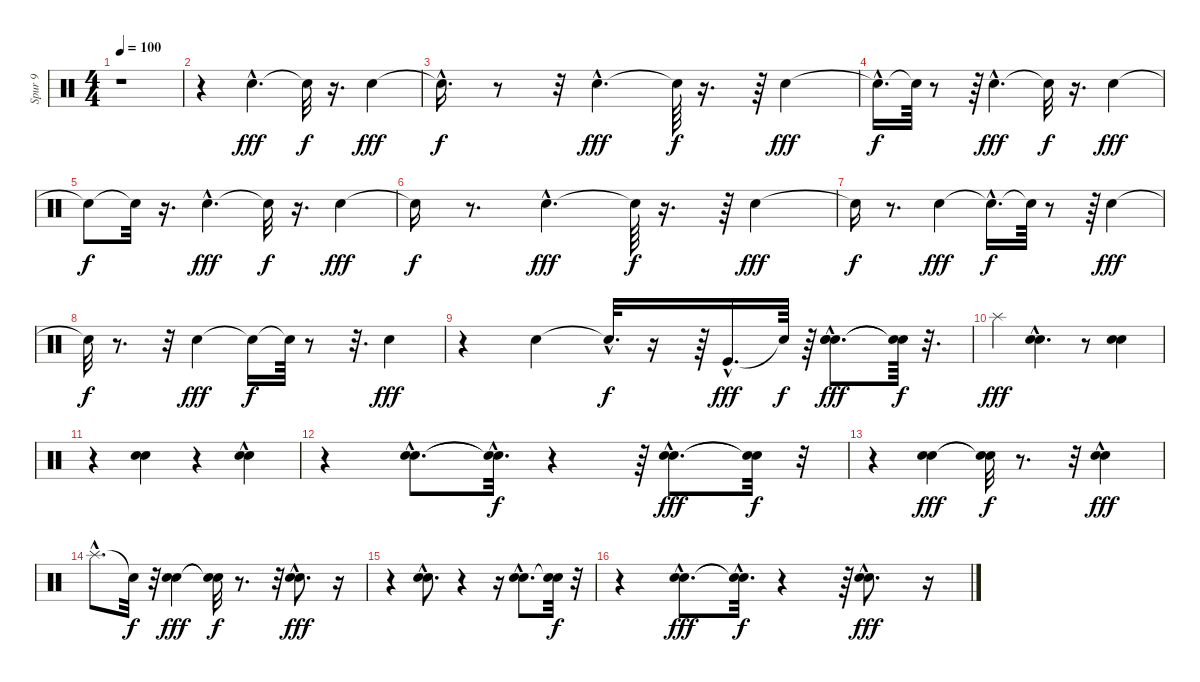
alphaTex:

\track ("Spur 9" "Spur 9") {instrument percussion}
\staff {score}
\articulation defaults
\ts (4 4)
\tempo 100
\clef neutral
\ks c
r.1{dy fff} |
r.4 "Snare (hit) 2"{hac}.4{d} "Snare (hit)"{t}.32{dy f} r.16{d} "Snare (hit) 2".4{dy fff} |
"Snare (hit)"{hac t}.16{d dy f} r.8 r.32 "Snare (hit) 2"{hac}.4{d dy fff} "Snare (hit)"{t}.64{dy f} r.16{d} r.64 "Snare (hit) 2".4{dy fff} |
"Snare (hit)"{hac t}.16{d dy f} "Snare (hit)"{t}.64 r.8 r.64 "Snare (hit) 2"{hac}.4{d dy fff} "Snare (hit)"{t}.32{dy f} r.16{d} "Snare (hit) 2".4{dy fff} |
"Snare (hit)"{t}.8{dy f} "Snare (hit)"{t}.32 r.16{d} "Snare (hit) 2"{hac}.4{d dy fff} "Snare (hit)"{t}.32{dy f} r.16{d} "Snare (hit) 2".4{dy fff} |
"Snare (hit)"{t}.16{dy f} r.8{d} "Snare (hit) 2"{hac}.4{d dy fff} "Snare (hit)"{t}.64{dy f} r.16{d} r.64 "Snare (hit) 2".4{dy fff} |
"Snare (hit)"{t}.16{dy f} r.8{d} "Snare (hit) 2".4{dy fff} "Snare (hit)"{hac t}.16{d dy f} "Snare (hit)"{t}.64 r.8 r.64 "Snare (hit) 2".4{dy fff} |
"Snare (hit)"{t}.32{dy f} r.8{d} r.32 "Snare (hit) 2".4{dy fff} "Snare (hit)"{t}.16{dy f} "Snare (hit)"{t}.64 r.8 r.32{d} "Snare (hit) 2".4{dy fff} |
r.4 "Snare (hit) 2".4 "Snare (hit)"{hac t}.32{d dy f} r.16 r.64 "Kick (hit)"{hac}.16{d dy fff} "Snare (hit)"{t}.64{dy f} r.64 ("Snare (hit) 2"{hac} "Metronome (bell)"{hac} "Hand Clap (hit)").8{d dy fff} ("Snare (hit)"{t} "Snare (hit)"{t}).64{dy f} r.32{d} |
"Splash (hit)".4{dy fff} ("Snare (hit) 2" "Metronome (bell)"{hac}).4{d} r.8 ("Snare (hit) 2" "Metronome (bell)").4 |
r.4 ("Metronome (bell)" "Snare (hit) 2").4 r.4 ("Metronome (bell)"{hac} "Snare (hit) 2").4 |
r.4 ("Metronome (bell)"{hac} "Snare (hit) 2"{hac}).8{d} ("Snare (hit)"{hac t} "Snare (hit)"{hac t}).32{d dy f} r.4 r.64 ("Metronome (bell)"{hac} "Snare (hit) 2"{hac}).8{d dy fff} ("Snare (hit)"{t} "Snare (hit)"{t}).32{dy f} r.32 |
r.4 ("Metronome (bell)" "Snare (hit) 2").4{dy fff} ("Snare (hit)"{t} "Snare (hit)"{t}).32{dy f} r.8{d} r.32 ("Snare (hit) 2" "Metronome (bell)"{hac}).4{dy fff} |
"Splash (hit)"{hac}.8{d} "Snare (hit)"{t}.32{dy f} r.32 ("Snare (hit) 2" "Metronome (bell)").4{dy fff} ("Snare (hit)"{t} "Snare (hit)"{t}).32{dy f} r.8{d} r.32 ("Snare (hit) 2"{hac} "Metronome (bell)"{hac}).8{d dy fff} r.16 |
r.4 ("Metronome (bell)"{hac} "Snare (hit) 2"{hac}).8{d} r.4 r.16 ("Metronome (bell)"{hac} "Snare (hit) 2"{hac}).8{d} ("Snare (hit)"{t} "Snare (hit)"{t}).32{dy f} r.32 |
r.4 ("Metronome (bell)"{hac} "Snare (hit) 2"{hac}).8{d dy fff} ("Snare (hit)"{hac t} "Snare (hit)"{hac t}).32{d dy f} r.4 r.64 ("Metronome (bell)"{hac} "Snare (hit) 2"{hac}).8{d dy fff} r.16
